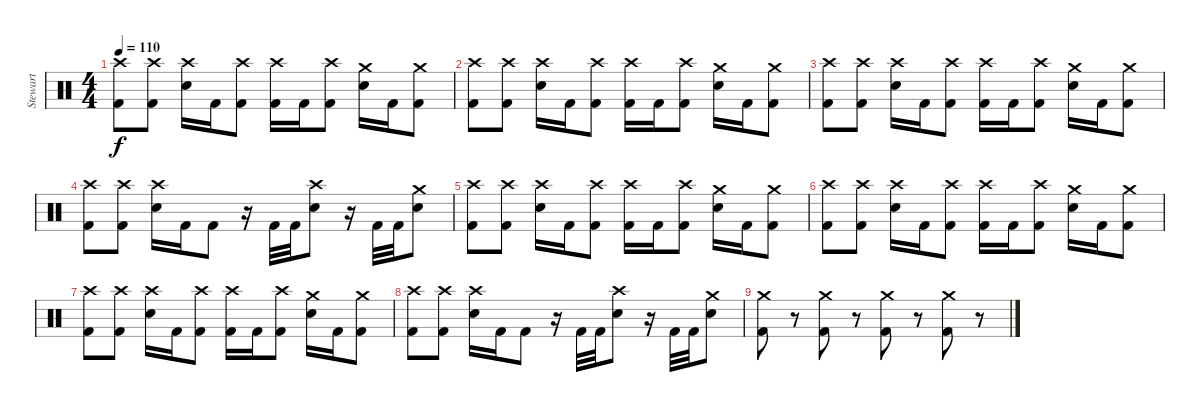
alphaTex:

\track ("Stewart" "Stewart") {instrument percussion}
\staff {score}
\articulation defaults
\ts (4 4)
\tempo 110
\clef neutral
\ks c
("Crash high (hit)" "Kick (hit) 2").8{dy f} ("Crash high (hit)" "Kick (hit) 2").8 ("Crash high (hit)" "Electric Snare (hit)").16 "Kick (hit) 2".16 ("Crash high (hit)" "Kick (hit) 2").8 ("Crash high (hit)" "Kick (hit) 2").16 "Kick (hit) 2".16 ("Crash high (hit)" "Kick (hit) 2").8 ("Crash medium (hit)" "Electric Snare (hit)").16 "Kick (hit) 2".16 ("Crash medium (hit)" "Kick (hit) 2").8 |
("Crash high (hit)" "Kick (hit) 2").8 ("Crash high (hit)" "Kick (hit) 2").8 ("Crash high (hit)" "Electric Snare (hit)").16 "Kick (hit) 2".16 ("Crash high (hit)" "Kick (hit) 2").8 ("Crash high (hit)" "Kick (hit) 2").16 "Kick (hit) 2".16 ("Crash high (hit)" "Kick (hit) 2").8 ("Crash medium (hit)" "Electric Snare (hit)").16 "Kick (hit) 2".16 ("Crash medium (hit)" "Kick (hit) 2").8 |
("Crash high (hit)" "Kick (hit) 2").8 ("Crash high (hit)" "Kick (hit) 2").8 ("Crash high (hit)" "Electric Snare (hit)").16 "Kick (hit) 2".16 ("Crash high (hit)" "Kick (hit) 2").8 ("Crash high (hit)" "Kick (hit) 2").16 "Kick (hit) 2".16 ("Crash high (hit)" "Kick (hit) 2").8 ("Crash medium (hit)" "Electric Snare (hit)").16 "Kick (hit) 2".16 ("Crash medium (hit)" "Kick (hit) 2").8 |
("Crash high (hit)" "Kick (hit) 2").8 ("Crash high (hit)" "Kick (hit) 2").8 ("Crash high (hit)" "Electric Snare (hit)").16 "Kick (hit) 2".16 "Kick (hit) 2".8 r.16 "Kick (hit) 2".32 "Kick (hit) 2".32 ("Crash high (hit)" "Snare (hit) 2").8 r.16 "Kick (hit) 2".32 "Kick (hit) 2".32 ("Crash medium (hit)" "Snare (hit) 2").8 |
("Crash high (hit)" "Kick (hit) 2").8 ("Crash high (hit)" "Kick (hit) 2").8 ("Crash high (hit)" "Electric Snare (hit)").16 "Kick (hit) 2".16 ("Crash high (hit)" "Kick (hit) 2").8 ("Crash high (hit)" "Kick (hit) 2").16 "Kick (hit) 2".16 ("Crash high (hit)" "Kick (hit) 2").8 ("Crash medium (hit)" "Electric Snare (hit)").16 "Kick (hit) 2".16 ("Crash medium (hit)" "Kick (hit) 2").8 |
("Crash high (hit)" "Kick (hit) 2").8 ("Crash high (hit)" "Kick (hit) 2").8 ("Crash high (hit)" "Electric Snare (hit)").16 "Kick (hit) 2".16 ("Crash high (hit)" "Kick (hit) 2").8 ("Crash high (hit)" "Kick (hit) 2").16 "Kick (hit) 2".16 ("Crash high (hit)" "Kick (hit) 2").8 ("Crash medium (hit)" "Electric Snare (hit)").16 "Kick (hit) 2".16 ("Crash medium (hit)" "Kick (hit) 2").8 |
("Crash high (hit)" "Kick (hit) 2").8 ("Crash high (hit)" "Kick (hit) 2").8 ("Crash high (hit)" "Electric Snare (hit)").16 "Kick (hit) 2".16 ("Crash high (hit)" "Kick (hit) 2").8 ("Crash high (hit)" "Kick (hit) 2").16 "Kick (hit) 2".16 ("Crash high (hit)" "Kick (hit) 2").8 ("Crash medium (hit)" "Electric Snare (hit)").16 "Kick (hit) 2".16 ("Crash medium (hit)" "Kick (hit) 2").8 |
("Crash high (hit)" "Kick (hit) 2").8 ("Crash high (hit)" "Kick (hit) 2").8 ("Crash high (hit)" "Electric Snare (hit)").16 "Kick (hit) 2".16 "Kick (hit) 2".8 r.16 "Kick (hit) 2".32 "Kick (hit) 2".32 ("Crash high (hit)" "Electric Snare (hit)").8 r.16 "Kick (hit) 2".32 "Kick (hit) 2".32 ("Crash medium (hit)" "Electric Snare (hit)").8 |
("Crash medium (hit)" "Kick (hit) 2").8 r.8 ("Crash medium (hit)" "Kick (hit) 2").8 r.8 ("Crash medium (hit)" "Kick (hit) 2").8 r.8 ("Crash medium (hit)" "Kick (hit) 2").8 r.8
